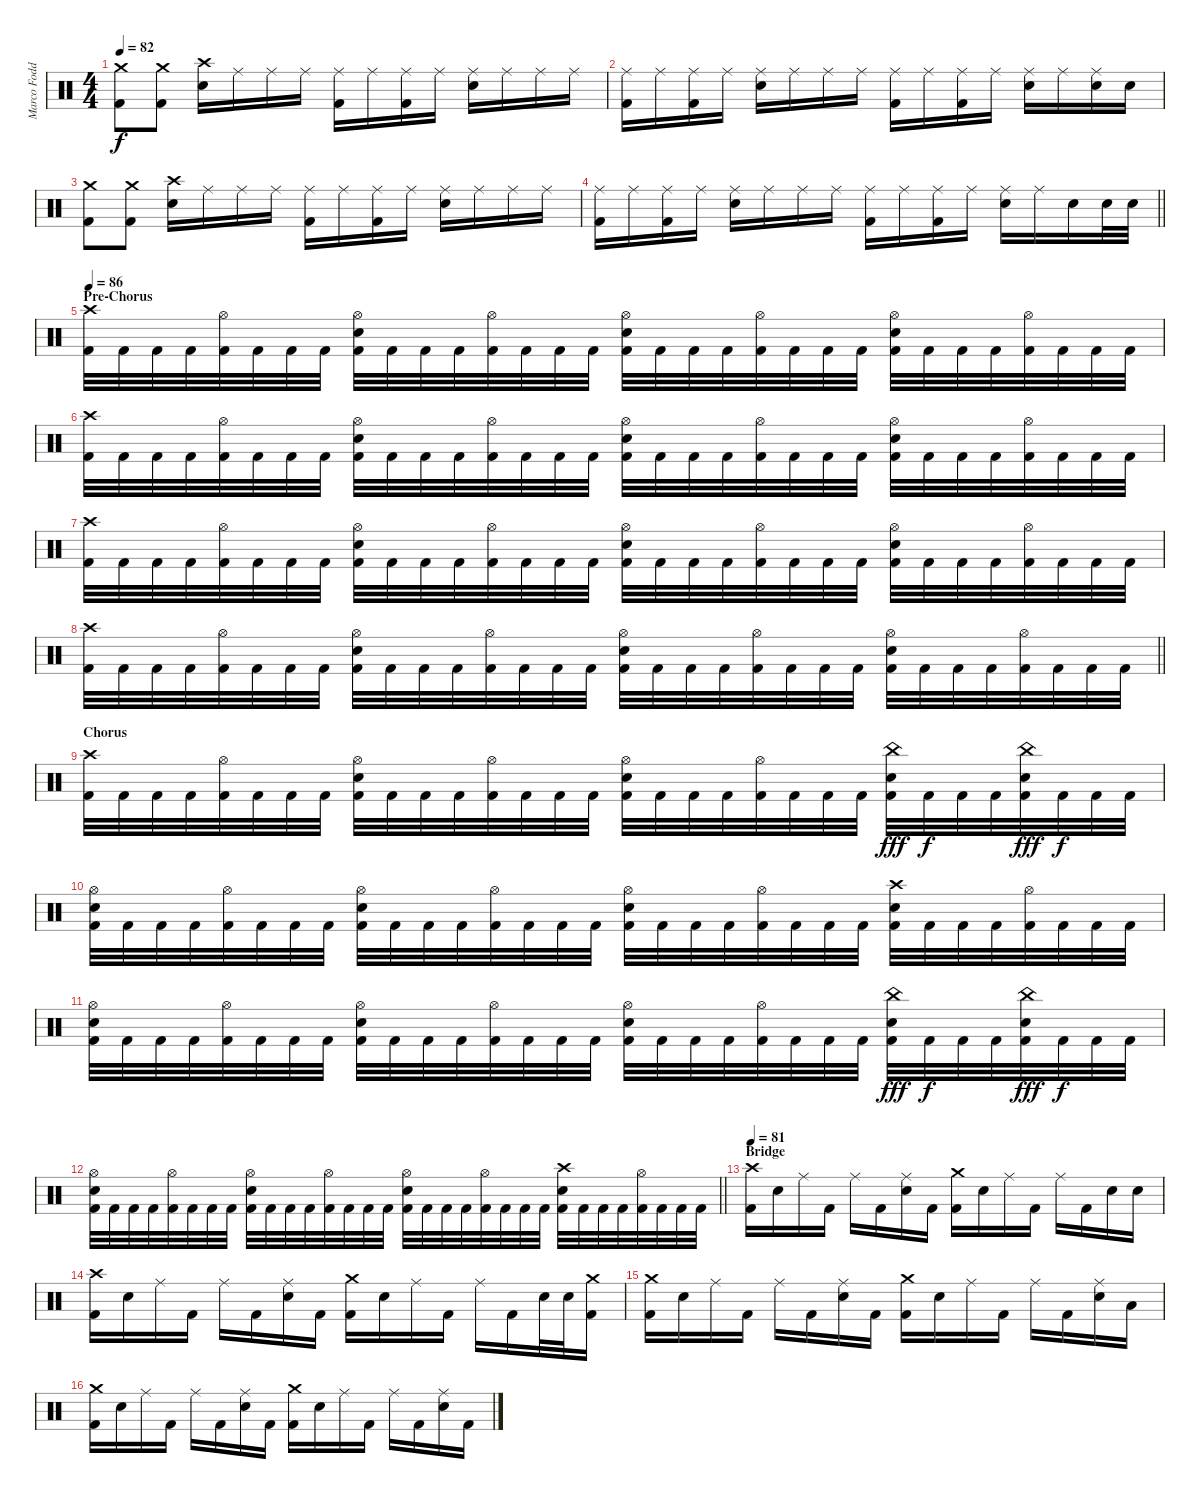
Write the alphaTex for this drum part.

\track ("Marco Foddis" "Marco Fodd") {instrument percussion}
\staff {score}
\articulation defaults
\ts (4 4)
\tempo 82
\clef neutral
\ks c
("Crash medium (hit)" "Kick (hit) 2").8{dy f} ("Crash medium (hit)" "Kick (hit) 2").8 ("Crash high (hit)" "Electric Snare (hit)").16 "Ride (middle)".16 "Ride (middle)".16 "Ride (middle)".16 ("Ride (middle)" "Kick (hit) 2").16 "Ride (middle)".16 ("Ride (middle)" "Kick (hit) 2").16 "Ride (middle)".16 ("Ride (middle)" "Electric Snare (hit)").16 "Ride (middle)".16 "Ride (middle)".16 "Ride (middle)".16 |
("Ride (middle)" "Kick (hit) 2").16 "Ride (middle)".16 ("Ride (middle)" "Kick (hit) 2").16 "Ride (middle)".16 ("Ride (middle)" "Electric Snare (hit)").16 "Ride (middle)".16 "Ride (middle)".16 "Ride (middle)".16 ("Ride (middle)" "Kick (hit) 2").16 "Ride (middle)".16 ("Ride (middle)" "Kick (hit) 2").16 "Ride (middle)".16 ("Ride (middle)" "Electric Snare (hit)").16 "Ride (middle)".16 ("Ride (middle)" "Electric Snare (hit)").16 "Electric Snare (hit)".16 |
("Crash medium (hit)" "Kick (hit) 2").8 ("Crash medium (hit)" "Kick (hit) 2").8 ("Crash high (hit)" "Electric Snare (hit)").16 "Ride (middle)".16 "Ride (middle)".16 "Ride (middle)".16 ("Ride (middle)" "Kick (hit) 2").16 "Ride (middle)".16 ("Ride (middle)" "Kick (hit) 2").16 "Ride (middle)".16 ("Ride (middle)" "Electric Snare (hit)").16 "Ride (middle)".16 "Ride (middle)".16 "Ride (middle)".16 |
\barLineRight lightlight
("Ride (middle)" "Kick (hit) 2").16 "Ride (middle)".16 ("Ride (middle)" "Kick (hit) 2").16 "Ride (middle)".16 ("Ride (middle)" "Electric Snare (hit)").16 "Ride (middle)".16 "Ride (middle)".16 "Ride (middle)".16 ("Ride (middle)" "Kick (hit) 2").16 "Ride (middle)".16 ("Ride (middle)" "Kick (hit) 2").16 "Ride (middle)".16 ("Ride (middle)" "Electric Snare (hit)").16 "Ride (middle)".16 "Electric Snare (hit)".16 "Electric Snare (hit)".32 "Electric Snare (hit)".32 |
\section ("" "Pre-Chorus")
\tempo 86
("Crash high (hit)" "Kick (hit) 2").32 "Kick (hit) 2".32 "Kick (hit) 2".32 "Kick (hit) 2".32 ("Hi-Hat (open)" "Kick (hit) 2").32 "Kick (hit) 2".32 "Kick (hit) 2".32 "Kick (hit) 2".32 ("Hi-Hat (open)" "Electric Snare (hit)" "Kick (hit) 2").32 "Kick (hit) 2".32 "Kick (hit) 2".32 "Kick (hit) 2".32 ("Hi-Hat (open)" "Kick (hit) 2").32 "Kick (hit) 2".32 "Kick (hit) 2".32 "Kick (hit) 2".32 ("Hi-Hat (open)" "Electric Snare (hit)" "Kick (hit) 2").32 "Kick (hit) 2".32 "Kick (hit) 2".32 "Kick (hit) 2".32 ("Hi-Hat (open)" "Kick (hit) 2").32 "Kick (hit) 2".32 "Kick (hit) 2".32 "Kick (hit) 2".32 ("Hi-Hat (open)" "Electric Snare (hit)" "Kick (hit) 2").32 "Kick (hit) 2".32 "Kick (hit) 2".32 "Kick (hit) 2".32 ("Hi-Hat (open)" "Kick (hit) 2").32 "Kick (hit) 2".32 "Kick (hit) 2".32 "Kick (hit) 2".32 |
("Crash high (hit)" "Kick (hit) 2").32 "Kick (hit) 2".32 "Kick (hit) 2".32 "Kick (hit) 2".32 ("Hi-Hat (open)" "Kick (hit) 2").32 "Kick (hit) 2".32 "Kick (hit) 2".32 "Kick (hit) 2".32 ("Hi-Hat (open)" "Electric Snare (hit)" "Kick (hit) 2").32 "Kick (hit) 2".32 "Kick (hit) 2".32 "Kick (hit) 2".32 ("Hi-Hat (open)" "Kick (hit) 2").32 "Kick (hit) 2".32 "Kick (hit) 2".32 "Kick (hit) 2".32 ("Hi-Hat (open)" "Electric Snare (hit)" "Kick (hit) 2").32 "Kick (hit) 2".32 "Kick (hit) 2".32 "Kick (hit) 2".32 ("Hi-Hat (open)" "Kick (hit) 2").32 "Kick (hit) 2".32 "Kick (hit) 2".32 "Kick (hit) 2".32 ("Hi-Hat (open)" "Electric Snare (hit)" "Kick (hit) 2").32 "Kick (hit) 2".32 "Kick (hit) 2".32 "Kick (hit) 2".32 ("Hi-Hat (open)" "Kick (hit) 2").32 "Kick (hit) 2".32 "Kick (hit) 2".32 "Kick (hit) 2".32 |
("Crash high (hit)" "Kick (hit) 2").32 "Kick (hit) 2".32 "Kick (hit) 2".32 "Kick (hit) 2".32 ("Hi-Hat (open)" "Kick (hit) 2").32 "Kick (hit) 2".32 "Kick (hit) 2".32 "Kick (hit) 2".32 ("Hi-Hat (open)" "Electric Snare (hit)" "Kick (hit) 2").32 "Kick (hit) 2".32 "Kick (hit) 2".32 "Kick (hit) 2".32 ("Hi-Hat (open)" "Kick (hit) 2").32 "Kick (hit) 2".32 "Kick (hit) 2".32 "Kick (hit) 2".32 ("Hi-Hat (open)" "Electric Snare (hit)" "Kick (hit) 2").32 "Kick (hit) 2".32 "Kick (hit) 2".32 "Kick (hit) 2".32 ("Hi-Hat (open)" "Kick (hit) 2").32 "Kick (hit) 2".32 "Kick (hit) 2".32 "Kick (hit) 2".32 ("Hi-Hat (open)" "Electric Snare (hit)" "Kick (hit) 2").32 "Kick (hit) 2".32 "Kick (hit) 2".32 "Kick (hit) 2".32 ("Hi-Hat (open)" "Kick (hit) 2").32 "Kick (hit) 2".32 "Kick (hit) 2".32 "Kick (hit) 2".32 |
\barLineRight lightlight
("Crash high (hit)" "Kick (hit) 2").32 "Kick (hit) 2".32 "Kick (hit) 2".32 "Kick (hit) 2".32 ("Hi-Hat (open)" "Kick (hit) 2").32 "Kick (hit) 2".32 "Kick (hit) 2".32 "Kick (hit) 2".32 ("Hi-Hat (open)" "Electric Snare (hit)" "Kick (hit) 2").32 "Kick (hit) 2".32 "Kick (hit) 2".32 "Kick (hit) 2".32 ("Hi-Hat (open)" "Kick (hit) 2").32 "Kick (hit) 2".32 "Kick (hit) 2".32 "Kick (hit) 2".32 ("Hi-Hat (open)" "Electric Snare (hit)" "Kick (hit) 2").32 "Kick (hit) 2".32 "Kick (hit) 2".32 "Kick (hit) 2".32 ("Hi-Hat (open)" "Kick (hit) 2").32 "Kick (hit) 2".32 "Kick (hit) 2".32 "Kick (hit) 2".32 ("Hi-Hat (open)" "Electric Snare (hit)" "Kick (hit) 2").32 "Kick (hit) 2".32 "Kick (hit) 2".32 "Kick (hit) 2".32 ("Hi-Hat (open)" "Kick (hit) 2").32 "Kick (hit) 2".32 "Kick (hit) 2".32 "Kick (hit) 2".32 |
\section ("" "Chorus")
("Crash high (hit)" "Kick (hit) 2").32 "Kick (hit) 2".32 "Kick (hit) 2".32 "Kick (hit) 2".32 ("Hi-Hat (open)" "Kick (hit) 2").32 "Kick (hit) 2".32 "Kick (hit) 2".32 "Kick (hit) 2".32 ("Hi-Hat (open)" "Electric Snare (hit)" "Kick (hit) 2").32 "Kick (hit) 2".32 "Kick (hit) 2".32 "Kick (hit) 2".32 ("Hi-Hat (open)" "Kick (hit) 2").32 "Kick (hit) 2".32 "Kick (hit) 2".32 "Kick (hit) 2".32 ("Hi-Hat (open)" "Electric Snare (hit)" "Kick (hit) 2").32 "Kick (hit) 2".32 "Kick (hit) 2".32 "Kick (hit) 2".32 ("Hi-Hat (open)" "Kick (hit) 2").32 "Kick (hit) 2".32 "Kick (hit) 2".32 "Kick (hit) 2".32 ("China (hit)" "Electric Snare (hit)" "Kick (hit) 2").32{dy fff} "Kick (hit) 2".32{dy f} "Kick (hit) 2".32 "Kick (hit) 2".32 ("China (hit)" "Electric Snare (hit)" "Kick (hit) 2").32{dy fff} "Kick (hit) 2".32{dy f} "Kick (hit) 2".32 "Kick (hit) 2".32 |
("Hi-Hat (open)" "Electric Snare (hit)" "Kick (hit) 2").32 "Kick (hit) 2".32 "Kick (hit) 2".32 "Kick (hit) 2".32 ("Hi-Hat (open)" "Kick (hit) 2").32 "Kick (hit) 2".32 "Kick (hit) 2".32 "Kick (hit) 2".32 ("Hi-Hat (open)" "Electric Snare (hit)" "Kick (hit) 2").32 "Kick (hit) 2".32 "Kick (hit) 2".32 "Kick (hit) 2".32 ("Hi-Hat (open)" "Kick (hit) 2").32 "Kick (hit) 2".32 "Kick (hit) 2".32 "Kick (hit) 2".32 ("Hi-Hat (open)" "Electric Snare (hit)" "Kick (hit) 2").32 "Kick (hit) 2".32 "Kick (hit) 2".32 "Kick (hit) 2".32 ("Hi-Hat (open)" "Kick (hit) 2").32 "Kick (hit) 2".32 "Kick (hit) 2".32 "Kick (hit) 2".32 ("Crash high (hit)" "Electric Snare (hit)" "Kick (hit) 2").32 "Kick (hit) 2".32 "Kick (hit) 2".32 "Kick (hit) 2".32 ("Hi-Hat (open)" "Kick (hit) 2").32 "Kick (hit) 2".32 "Kick (hit) 2".32 "Kick (hit) 2".32 |
("Hi-Hat (open)" "Electric Snare (hit)" "Kick (hit) 2").32 "Kick (hit) 2".32 "Kick (hit) 2".32 "Kick (hit) 2".32 ("Hi-Hat (open)" "Kick (hit) 2").32 "Kick (hit) 2".32 "Kick (hit) 2".32 "Kick (hit) 2".32 ("Hi-Hat (open)" "Electric Snare (hit)" "Kick (hit) 2").32 "Kick (hit) 2".32 "Kick (hit) 2".32 "Kick (hit) 2".32 ("Hi-Hat (open)" "Kick (hit) 2").32 "Kick (hit) 2".32 "Kick (hit) 2".32 "Kick (hit) 2".32 ("Hi-Hat (open)" "Electric Snare (hit)" "Kick (hit) 2").32 "Kick (hit) 2".32 "Kick (hit) 2".32 "Kick (hit) 2".32 ("Hi-Hat (open)" "Kick (hit) 2").32 "Kick (hit) 2".32 "Kick (hit) 2".32 "Kick (hit) 2".32 ("China (hit)" "Electric Snare (hit)" "Kick (hit) 2").32{dy fff} "Kick (hit) 2".32{dy f} "Kick (hit) 2".32 "Kick (hit) 2".32 ("China (hit)" "Electric Snare (hit)" "Kick (hit) 2").32{dy fff} "Kick (hit) 2".32{dy f} "Kick (hit) 2".32 "Kick (hit) 2".32 |
\barLineRight lightlight
("Hi-Hat (open)" "Electric Snare (hit)" "Kick (hit) 2").32 "Kick (hit) 2".32 "Kick (hit) 2".32 "Kick (hit) 2".32 ("Hi-Hat (open)" "Kick (hit) 2").32 "Kick (hit) 2".32 "Kick (hit) 2".32 "Kick (hit) 2".32 ("Hi-Hat (open)" "Electric Snare (hit)" "Kick (hit) 2").32 "Kick (hit) 2".32 "Kick (hit) 2".32 "Kick (hit) 2".32 ("Hi-Hat (open)" "Kick (hit) 2").32 "Kick (hit) 2".32 "Kick (hit) 2".32 "Kick (hit) 2".32 ("Hi-Hat (open)" "Electric Snare (hit)" "Kick (hit) 2").32 "Kick (hit) 2".32 "Kick (hit) 2".32 "Kick (hit) 2".32 ("Hi-Hat (open)" "Kick (hit) 2").32 "Kick (hit) 2".32 "Kick (hit) 2".32 "Kick (hit) 2".32 ("Crash high (hit)" "Electric Snare (hit)" "Kick (hit) 2").32 "Kick (hit) 2".32 "Kick (hit) 2".32 "Kick (hit) 2".32 ("Hi-Hat (open)" "Kick (hit) 2").32 "Kick (hit) 2".32 "Kick (hit) 2".32 "Kick (hit) 2".32 |
\section ("" "Bridge")
\tempo 81
("Crash high (hit)" "Kick (hit) 2").16 "Electric Snare (hit)".16 "Ride (middle)".16 "Kick (hit) 2".16 "Ride (middle)".16 "Kick (hit) 2".16 ("Ride (middle)" "Electric Snare (hit)").16 "Kick (hit) 2".16 ("Crash medium (hit)" "Kick (hit) 2").16 "Electric Snare (hit)".16 "Ride (middle)".16 "Kick (hit) 2".16 "Ride (middle)".16 "Kick (hit) 2".16 "Electric Snare (hit)".16 "Electric Snare (hit)".16 |
("Crash high (hit)" "Kick (hit) 2").16 "Electric Snare (hit)".16 "Ride (middle)".16 "Kick (hit) 2".16 "Ride (middle)".16 "Kick (hit) 2".16 ("Ride (middle)" "Electric Snare (hit)").16 "Kick (hit) 2".16 ("Crash medium (hit)" "Kick (hit) 2").16 "Electric Snare (hit)".16 "Ride (middle)".16 "Kick (hit) 2".16 "Ride (middle)".16 "Kick (hit) 2".16 "Electric Snare (hit)".32 "Electric Snare (hit)".32 ("Crash medium (hit)" "Kick (hit) 2").16 |
("Crash medium (hit)" "Kick (hit) 2").16 "Electric Snare (hit)".16 "Ride (middle)".16 "Kick (hit) 2".16 "Ride (middle)".16 "Kick (hit) 2".16 ("Ride (middle)" "Electric Snare (hit)").16 "Kick (hit) 2".16 ("Crash medium (hit)" "Kick (hit) 2").16 "Electric Snare (hit)".16 "Ride (middle)".16 "Kick (hit) 2".16 "Ride (middle)".16 "Kick (hit) 2".16 ("Ride (middle)" "Electric Snare (hit)").16 "Low Tom (hit)".16 |
("Crash medium (hit)" "Kick (hit) 2").16 "Electric Snare (hit)".16 "Ride (middle)".16 "Kick (hit) 2".16 "Ride (middle)".16 "Kick (hit) 2".16 ("Ride (middle)" "Electric Snare (hit)").16 "Kick (hit) 2".16 ("Crash medium (hit)" "Kick (hit) 2").16 "Electric Snare (hit)".16 "Ride (middle)".16 "Kick (hit) 2".16 "Ride (middle)".16 "Kick (hit) 2".16 ("Ride (middle)" "Electric Snare (hit)").16 "Kick (hit) 2".16
